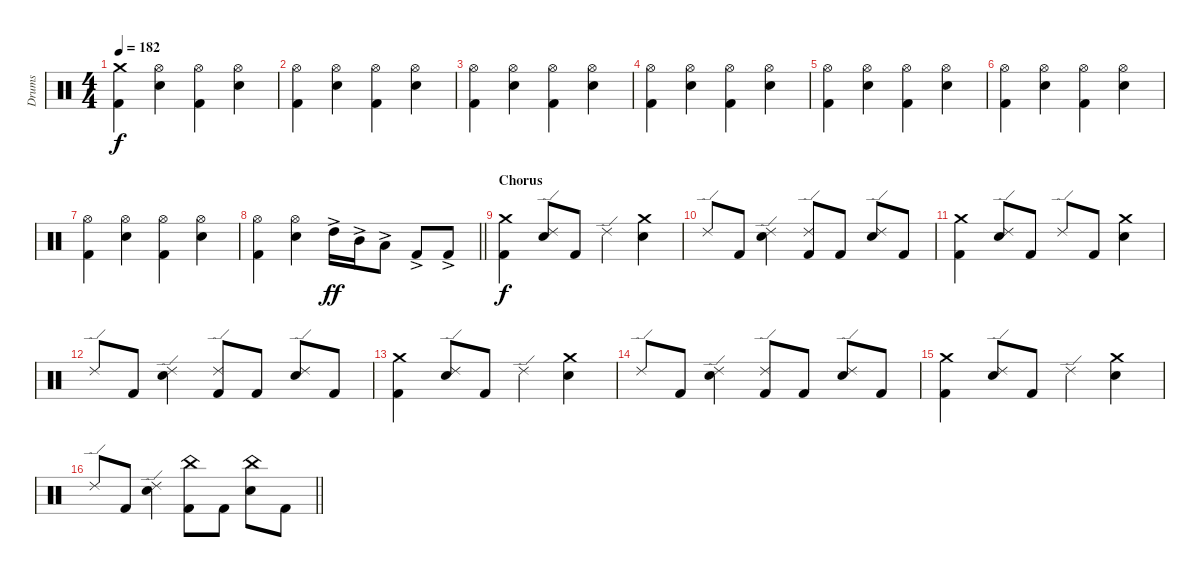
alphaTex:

\track ("Drums" "Drums") {instrument percussion}
\staff {score}
\articulation defaults
\ts (4 4)
\section ("" "")
\tempo 182
\clef neutral
\ks c
("Kick (hit) 2" "Crash medium (hit)").4{dy f} ("Snare (hit) 2" "Hi-Hat (open)").4 ("Kick (hit) 2" "Hi-Hat (open)").4 ("Snare (hit) 2" "Hi-Hat (open)").4 |
("Kick (hit) 2" "Hi-Hat (open)").4 ("Snare (hit) 2" "Hi-Hat (open)").4 ("Kick (hit) 2" "Hi-Hat (open)").4 ("Snare (hit) 2" "Hi-Hat (open)").4 |
("Kick (hit) 2" "Hi-Hat (open)").4 ("Snare (hit) 2" "Hi-Hat (open)").4 ("Kick (hit) 2" "Hi-Hat (open)").4 ("Snare (hit) 2" "Hi-Hat (open)").4 |
("Kick (hit) 2" "Hi-Hat (open)").4 ("Snare (hit) 2" "Hi-Hat (open)").4 ("Kick (hit) 2" "Hi-Hat (open)").4 ("Snare (hit) 2" "Hi-Hat (open)").4 |
("Kick (hit) 2" "Hi-Hat (open)").4 ("Snare (hit) 2" "Hi-Hat (open)").4 ("Kick (hit) 2" "Hi-Hat (open)").4 ("Snare (hit) 2" "Hi-Hat (open)").4 |
("Kick (hit) 2" "Hi-Hat (open)").4 ("Snare (hit) 2" "Hi-Hat (open)").4 ("Kick (hit) 2" "Hi-Hat (open)").4 ("Snare (hit) 2" "Hi-Hat (open)").4 |
("Kick (hit) 2" "Hi-Hat (open)").4 ("Snare (hit) 2" "Hi-Hat (open)").4 ("Kick (hit) 2" "Hi-Hat (open)").4 ("Snare (hit) 2" "Hi-Hat (open)").4 |
\barLineRight lightlight
("Kick (hit) 2" "Hi-Hat (open)").4 ("Snare (hit) 2" "Hi-Hat (open)").4 "High Tom (hit)"{ac}.16{dy ff} "Mid Tom (hit)"{ac}.16 "Low Tom (hit)"{ac}.8 "Kick (hit) 2"{ac}.8 "Kick (hit) 2"{ac}.8 |
\section ("" "Chorus")
("Kick (hit) 2" "Crash medium (hit)").4{dy f} ("Snare (hit) 2" "Ride (edge) 2").8 "Kick (hit) 2".8 "Ride (edge) 2".4 ("Snare (hit) 2" "Crash medium (hit)").4 |
"Ride (edge) 2".8 "Kick (hit) 2".8 ("Snare (hit) 2" "Ride (edge) 2").4 ("Kick (hit) 2" "Ride (edge) 2").8 "Kick (hit) 2".8 ("Snare (hit) 2" "Ride (edge) 2").8 "Kick (hit) 2".8 |
("Kick (hit) 2" "Crash medium (hit)").4 ("Snare (hit) 2" "Ride (edge) 2").8 "Kick (hit) 2".8 "Ride (edge) 2".8 "Kick (hit) 2".8 ("Snare (hit) 2" "Crash medium (hit)").4 |
"Ride (edge) 2".8 "Kick (hit) 2".8 ("Snare (hit) 2" "Ride (edge) 2").4 ("Kick (hit) 2" "Ride (edge) 2").8 "Kick (hit) 2".8 ("Snare (hit) 2" "Ride (edge) 2").8 "Kick (hit) 2".8 |
("Kick (hit) 2" "Crash medium (hit)").4 ("Snare (hit) 2" "Ride (edge) 2").8 "Kick (hit) 2".8 "Ride (edge) 2".4 ("Snare (hit) 2" "Crash medium (hit)").4 |
"Ride (edge) 2".8 "Kick (hit) 2".8 ("Snare (hit) 2" "Ride (edge) 2").4 ("Kick (hit) 2" "Ride (edge) 2").8 "Kick (hit) 2".8 ("Snare (hit) 2" "Ride (edge) 2").8 "Kick (hit) 2".8 |
("Kick (hit) 2" "Crash medium (hit)").4 ("Snare (hit) 2" "Ride (edge) 2").8 "Kick (hit) 2".8 "Ride (edge) 2".4 ("Snare (hit) 2" "Crash medium (hit)").4 |
\barLineRight lightlight "Ride (edge) 2".8 "Kick (hit) 2".8
("Snare (hit) 2" "Ride (edge) 2").4 ("Kick (hit) 2" "China (hit)").8 "Kick (hit) 2".8 ("Snare (hit) 2" "China (hit)").8 "Kick (hit) 2".8
